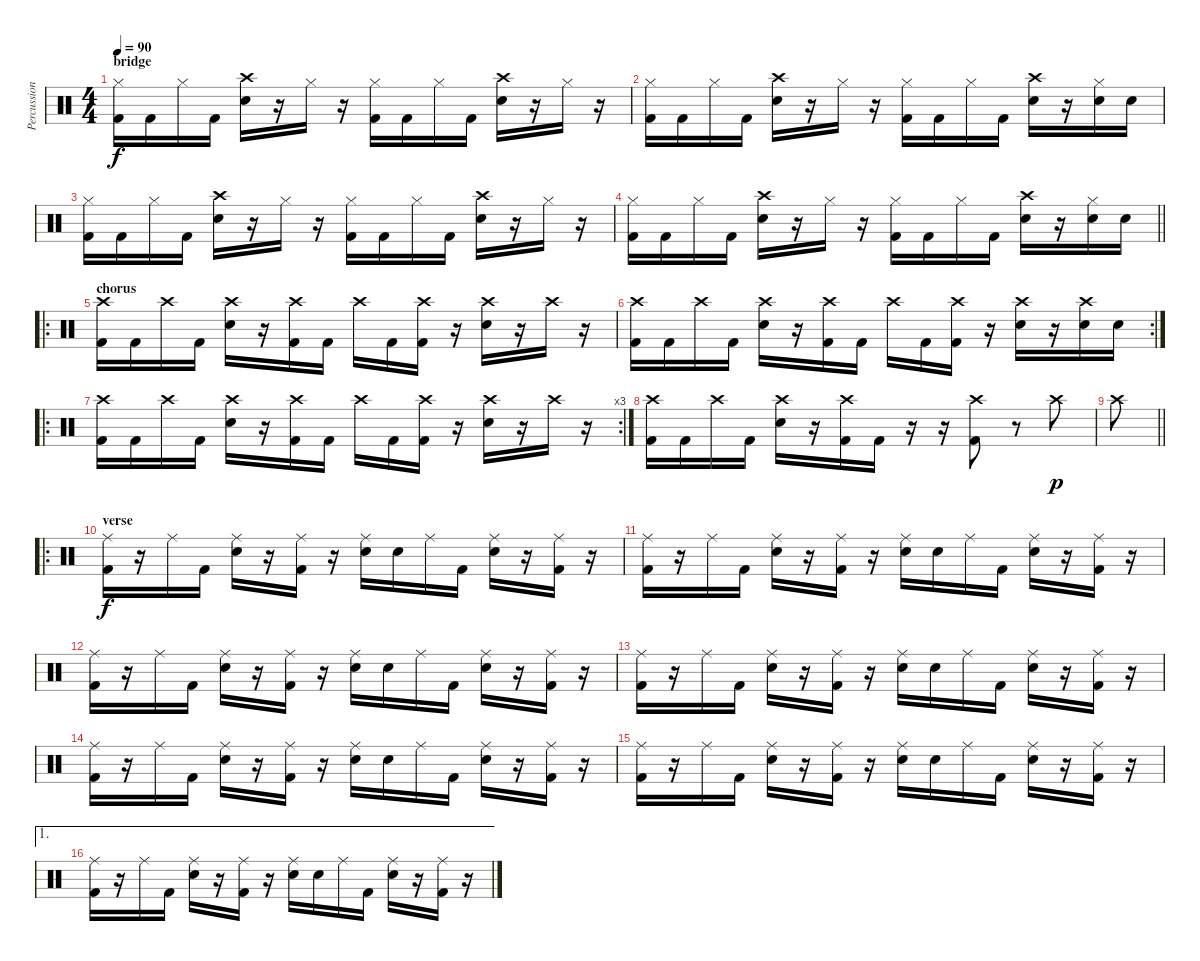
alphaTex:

\track ("Percussion" "Percussion") {instrument percussion}
\staff {score}
\articulation defaults
\ts (4 4)
\section ("" "bridge")
\tempo 90
\clef neutral
\ks c
("Hi-Hat (closed)" "Kick (hit) 2").16{dy f} "Kick (hit) 2".16 "Hi-Hat (closed)".16 "Kick (hit) 2".16 ("Crash high (hit)" "Electric Snare (hit)").16 r.16 "Hi-Hat (closed)".16 r.16 ("Hi-Hat (closed)" "Kick (hit) 2").16 "Kick (hit) 2".16 "Hi-Hat (closed)".16 "Kick (hit) 2".16 ("Crash high (hit)" "Electric Snare (hit)").16 r.16 "Hi-Hat (closed)".16 r.16 |
("Hi-Hat (closed)" "Kick (hit) 2").16 "Kick (hit) 2".16 "Hi-Hat (closed)".16 "Kick (hit) 2".16 ("Crash high (hit)" "Electric Snare (hit)").16 r.16 "Hi-Hat (closed)".16 r.16 ("Hi-Hat (closed)" "Kick (hit) 2").16 "Kick (hit) 2".16 "Hi-Hat (closed)".16 "Kick (hit) 2".16 ("Crash high (hit)" "Electric Snare (hit)").16 r.16 ("Hi-Hat (closed)" "Electric Snare (hit)").16 "Electric Snare (hit)".16 |
("Hi-Hat (closed)" "Kick (hit) 2").16 "Kick (hit) 2".16 "Hi-Hat (closed)".16 "Kick (hit) 2".16 ("Crash high (hit)" "Electric Snare (hit)").16 r.16 "Hi-Hat (closed)".16 r.16 ("Hi-Hat (closed)" "Kick (hit) 2").16 "Kick (hit) 2".16 "Hi-Hat (closed)".16 "Kick (hit) 2".16 ("Crash high (hit)" "Electric Snare (hit)").16 r.16 "Hi-Hat (closed)".16 r.16 |
\barLineRight lightlight
("Hi-Hat (closed)" "Kick (hit) 2").16 "Kick (hit) 2".16 "Hi-Hat (closed)".16 "Kick (hit) 2".16 ("Crash high (hit)" "Electric Snare (hit)").16 r.16 "Hi-Hat (closed)".16 r.16 ("Hi-Hat (closed)" "Kick (hit) 2").16 "Kick (hit) 2".16 "Hi-Hat (closed)".16 "Kick (hit) 2".16 ("Crash high (hit)" "Electric Snare (hit)").16 r.16 ("Hi-Hat (closed)" "Electric Snare (hit)").16 "Electric Snare (hit)".16 |
\ro
\section ("" "chorus")
("Crash high (hit)" "Kick (hit) 2").16 "Kick (hit) 2".16 "Crash high (hit)".16 "Kick (hit) 2".16 ("Crash high (hit)" "Electric Snare (hit)").16 r.16 ("Crash high (hit)" "Kick (hit) 2").16 "Kick (hit) 2".16 "Crash high (hit)".16 "Kick (hit) 2".16 ("Crash high (hit)" "Kick (hit) 2").16 r.16 ("Crash high (hit)" "Electric Snare (hit)").16 r.16 "Crash high (hit)".16 r.16 |
\rc 2
("Crash high (hit)" "Kick (hit) 2").16 "Kick (hit) 2".16 "Crash high (hit)".16 "Kick (hit) 2".16 ("Crash high (hit)" "Electric Snare (hit)").16 r.16 ("Crash high (hit)" "Kick (hit) 2").16 "Kick (hit) 2".16 "Crash high (hit)".16 "Kick (hit) 2".16 ("Crash high (hit)" "Kick (hit) 2").16 r.16 ("Crash high (hit)" "Electric Snare (hit)").16 r.16 ("Crash high (hit)" "Electric Snare (hit)").16 "Electric Snare (hit)".16 |
\ro
\rc 3
("Crash high (hit)" "Kick (hit) 2").16 "Kick (hit) 2".16 "Crash high (hit)".16 "Kick (hit) 2".16 ("Crash high (hit)" "Electric Snare (hit)").16 r.16 ("Crash high (hit)" "Kick (hit) 2").16 "Kick (hit) 2".16 "Crash high (hit)".16 "Kick (hit) 2".16 ("Crash high (hit)" "Kick (hit) 2").16 r.16 ("Crash high (hit)" "Electric Snare (hit)").16 r.16 "Crash high (hit)".16 r.16 |
("Crash high (hit)" "Kick (hit) 2").16 "Kick (hit) 2".16 "Crash high (hit)".16 "Kick (hit) 2".16 ("Crash high (hit)" "Electric Snare (hit)").16 r.16 ("Crash high (hit)" "Kick (hit) 2").16 "Kick (hit) 2".16 r.16 r.16 ("Crash high (hit)" "Kick (hit) 2").8 r.8 "Crash high (hit)".8{dy p} |
\barLineRight lightlight "Crash high (hit)".8
|
\ro
\section ("" "verse")
("Ride (middle)" "Kick (hit) 2").16{dy f} r.16 "Ride (middle)".16 "Kick (hit) 2".16 ("Ride (middle)" "Electric Snare (hit)").16 r.16 ("Ride (middle)" "Kick (hit) 2").16 r.16 ("Ride (middle)" "Electric Snare (hit)").16 "Electric Snare (hit)".16 "Ride (middle)".16 "Kick (hit) 2".16 ("Ride (middle)" "Electric Snare (hit)").16 r.16 ("Ride (middle)" "Kick (hit) 2").16 r.16 |
("Ride (middle)" "Kick (hit) 2").16 r.16 "Ride (middle)".16 "Kick (hit) 2".16 ("Ride (middle)" "Electric Snare (hit)").16 r.16 ("Ride (middle)" "Kick (hit) 2").16 r.16 ("Ride (middle)" "Electric Snare (hit)").16 "Electric Snare (hit)".16 "Ride (middle)".16 "Kick (hit) 2".16 ("Ride (middle)" "Electric Snare (hit)").16 r.16 ("Ride (middle)" "Kick (hit) 2").16 r.16 |
("Ride (middle)" "Kick (hit) 2").16 r.16 "Ride (middle)".16 "Kick (hit) 2".16 ("Ride (middle)" "Electric Snare (hit)").16 r.16 ("Ride (middle)" "Kick (hit) 2").16 r.16 ("Ride (middle)" "Electric Snare (hit)").16 "Electric Snare (hit)".16 "Ride (middle)".16 "Kick (hit) 2".16 ("Ride (middle)" "Electric Snare (hit)").16 r.16 ("Ride (middle)" "Kick (hit) 2").16 r.16 |
("Ride (middle)" "Kick (hit) 2").16 r.16 "Ride (middle)".16 "Kick (hit) 2".16 ("Ride (middle)" "Electric Snare (hit)").16 r.16 ("Ride (middle)" "Kick (hit) 2").16 r.16 ("Ride (middle)" "Electric Snare (hit)").16 "Electric Snare (hit)".16 "Ride (middle)".16 "Kick (hit) 2".16 ("Ride (middle)" "Electric Snare (hit)").16 r.16 ("Ride (middle)" "Kick (hit) 2").16 r.16 |
("Ride (middle)" "Kick (hit) 2").16 r.16 "Ride (middle)".16 "Kick (hit) 2".16 ("Ride (middle)" "Electric Snare (hit)").16 r.16 ("Ride (middle)" "Kick (hit) 2").16 r.16 ("Ride (middle)" "Electric Snare (hit)").16 "Electric Snare (hit)".16 "Ride (middle)".16 "Kick (hit) 2".16 ("Ride (middle)" "Electric Snare (hit)").16 r.16 ("Ride (middle)" "Kick (hit) 2").16 r.16 |
("Ride (middle)" "Kick (hit) 2").16 r.16 "Ride (middle)".16 "Kick (hit) 2".16 ("Ride (middle)" "Electric Snare (hit)").16 r.16 ("Ride (middle)" "Kick (hit) 2").16 r.16 ("Ride (middle)" "Electric Snare (hit)").16 "Electric Snare (hit)".16 "Ride (middle)".16 "Kick (hit) 2".16 ("Ride (middle)" "Electric Snare (hit)").16 r.16 ("Ride (middle)" "Kick (hit) 2").16 r.16 |
\ae 1
("Ride (middle)" "Kick (hit) 2").16 r.16 "Ride (middle)".16 "Kick (hit) 2".16 ("Ride (middle)" "Electric Snare (hit)").16 r.16 ("Ride (middle)" "Kick (hit) 2").16 r.16 ("Ride (middle)" "Electric Snare (hit)").16 "Electric Snare (hit)".16 "Ride (middle)".16 "Kick (hit) 2".16 ("Ride (middle)" "Electric Snare (hit)").16 r.16 ("Ride (middle)" "Kick (hit) 2").16 r.16
